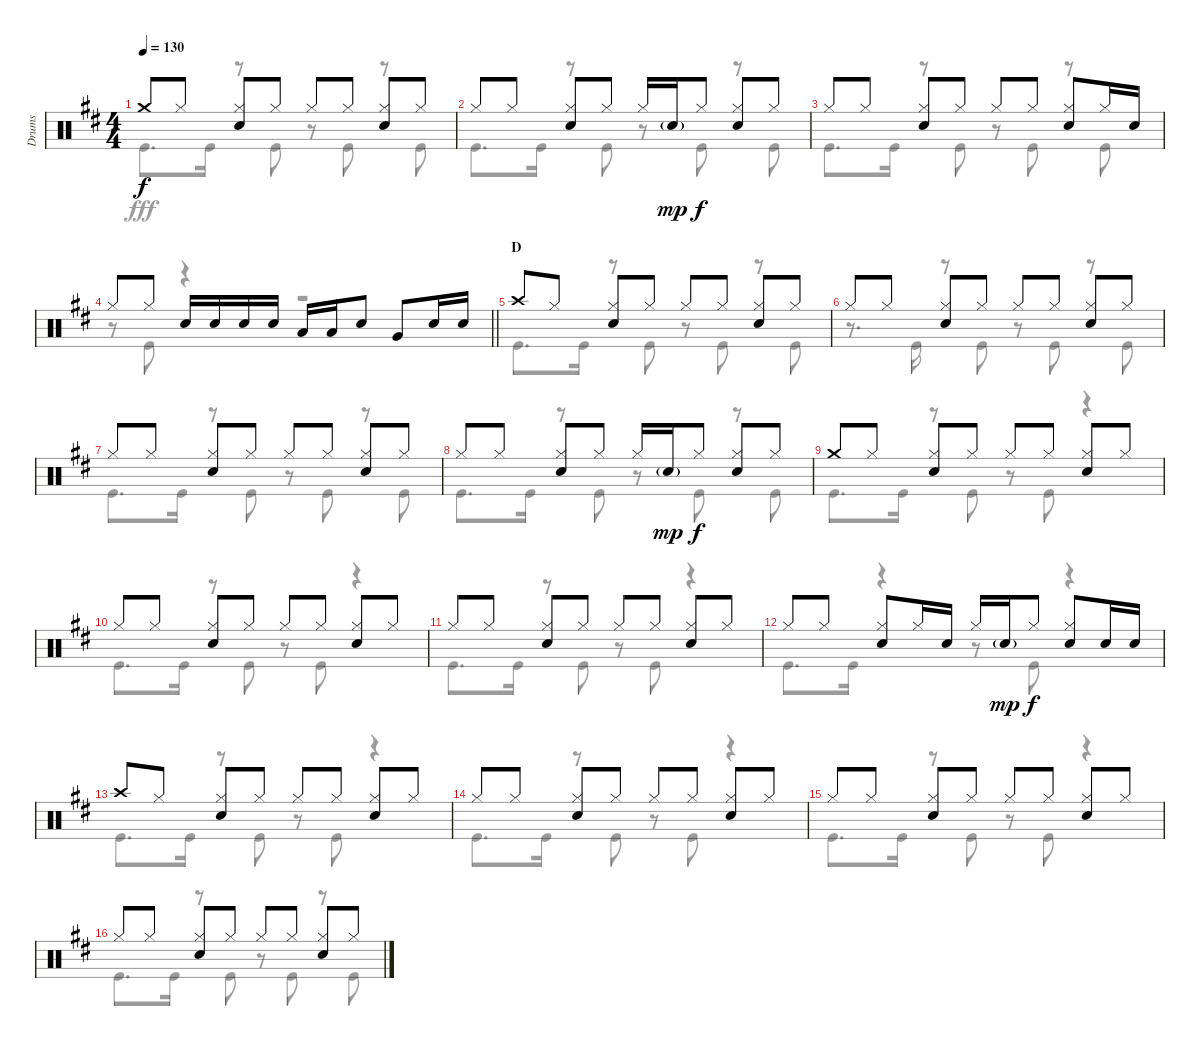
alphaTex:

\track ("Drums" "Drums") {instrument percussion}
\staff {score}
\articulation defaults
\voice
\ts (4 4)
\tempo 130
\clef neutral
\ks d "Crash medium (hit)".8{dy f} "Hi-Hat (closed)".8
("Hi-Hat (closed)" "Snare (hit) 2").8 "Hi-Hat (closed)".8 "Hi-Hat (closed)".8 "Hi-Hat (closed)".8 ("Hi-Hat (closed)" "Snare (hit) 2").8 "Hi-Hat (closed)".8 |
"Hi-Hat (closed)".8 "Hi-Hat (closed)".8 ("Hi-Hat (closed)" "Snare (hit) 2").8 "Hi-Hat (closed)".8 "Hi-Hat (closed)".16 "Snare (hit) 2"{g}.16{dy mp} "Hi-Hat (closed)".8{dy f} ("Hi-Hat (closed)" "Snare (hit) 2").8 "Hi-Hat (closed)".8 |
"Hi-Hat (closed)".8 "Hi-Hat (closed)".8 ("Hi-Hat (closed)" "Snare (hit) 2").8 "Hi-Hat (closed)".8 "Hi-Hat (closed)".8 "Hi-Hat (closed)".8 ("Hi-Hat (closed)" "Snare (hit) 2").8 "Hi-Hat (closed)".16 "Snare (hit) 2".16 |
\barLineRight lightlight "Hi-Hat (closed)".8 "Hi-Hat (closed)".8 "Snare (hit) 2".16 "Snare (hit) 2".16 "Snare (hit) 2".16 "Snare (hit) 2".16 "Low Tom (hit)".16 "Low Tom (hit)".16 "Snare (hit) 2".8 "Very Low Tom (hit)".8 "Snare (hit) 2".16 "Snare (hit) 2".16
|
\section ("" "D")
"Crash high (hit)".8 "Hi-Hat (closed)".8 ("Hi-Hat (closed)" "Snare (hit) 2").8 "Hi-Hat (closed)".8 "Hi-Hat (closed)".8 "Hi-Hat (closed)".8 ("Hi-Hat (closed)" "Snare (hit) 2").8 "Hi-Hat (closed)".8 |
"Hi-Hat (closed)".8 "Hi-Hat (closed)".8 ("Hi-Hat (closed)" "Snare (hit) 2").8 "Hi-Hat (closed)".8 "Hi-Hat (closed)".8 "Hi-Hat (closed)".8 ("Hi-Hat (closed)" "Snare (hit) 2").8 "Hi-Hat (closed)".8 |
"Hi-Hat (closed)".8 "Hi-Hat (closed)".8 ("Hi-Hat (closed)" "Snare (hit) 2").8 "Hi-Hat (closed)".8 "Hi-Hat (closed)".8 "Hi-Hat (closed)".8 ("Hi-Hat (closed)" "Snare (hit) 2").8 "Hi-Hat (closed)".8 |
"Hi-Hat (closed)".8 "Hi-Hat (closed)".8 ("Hi-Hat (closed)" "Snare (hit) 2").8 "Hi-Hat (closed)".8 "Hi-Hat (closed)".16 "Snare (hit) 2"{g}.16{dy mp} "Hi-Hat (closed)".8{dy f} ("Hi-Hat (closed)" "Snare (hit) 2").8 "Hi-Hat (closed)".8 |
"Crash medium (hit)".8 "Hi-Hat (closed)".8 ("Hi-Hat (closed)" "Snare (hit) 2").8 "Hi-Hat (closed)".8 "Hi-Hat (closed)".8 "Hi-Hat (closed)".8 ("Hi-Hat (closed)" "Snare (hit) 2").8 "Hi-Hat (closed)".8 |
"Hi-Hat (closed)".8 "Hi-Hat (closed)".8 ("Hi-Hat (closed)" "Snare (hit) 2").8 "Hi-Hat (closed)".8 "Hi-Hat (closed)".8 "Hi-Hat (closed)".8 ("Hi-Hat (closed)" "Snare (hit) 2").8 "Hi-Hat (closed)".8 |
"Hi-Hat (closed)".8 "Hi-Hat (closed)".8 ("Hi-Hat (closed)" "Snare (hit) 2").8 "Hi-Hat (closed)".8 "Hi-Hat (closed)".8 "Hi-Hat (closed)".8 ("Hi-Hat (closed)" "Snare (hit) 2").8 "Hi-Hat (closed)".8 |
"Hi-Hat (closed)".8 "Hi-Hat (closed)".8 ("Hi-Hat (closed)" "Snare (hit) 2").8 "Hi-Hat (closed)".16 "Snare (hit) 2".16 "Hi-Hat (closed)".16 "Snare (hit) 2"{g}.16{dy mp} "Hi-Hat (closed)".8{dy f} ("Hi-Hat (closed)" "Snare (hit) 2").8 "Snare (hit) 2".16 "Snare (hit) 2".16 |
"Crash high (hit)".8 "Hi-Hat (closed)".8 ("Hi-Hat (closed)" "Snare (hit) 2").8 "Hi-Hat (closed)".8 "Hi-Hat (closed)".8 "Hi-Hat (closed)".8 ("Hi-Hat (closed)" "Snare (hit) 2").8 "Hi-Hat (closed)".8 |
"Hi-Hat (closed)".8 "Hi-Hat (closed)".8 ("Hi-Hat (closed)" "Snare (hit) 2").8 "Hi-Hat (closed)".8 "Hi-Hat (closed)".8 "Hi-Hat (closed)".8 ("Hi-Hat (closed)" "Snare (hit) 2").8 "Hi-Hat (closed)".8 |
"Hi-Hat (closed)".8 "Hi-Hat (closed)".8 ("Hi-Hat (closed)" "Snare (hit) 2").8 "Hi-Hat (closed)".8 "Hi-Hat (closed)".8 "Hi-Hat (closed)".8 ("Hi-Hat (closed)" "Snare (hit) 2").8 "Hi-Hat (closed)".8 |
"Hi-Hat (closed)".8 "Hi-Hat (closed)".8 ("Hi-Hat (closed)" "Snare (hit) 2").8 "Hi-Hat (closed)".8 "Hi-Hat (closed)".8 "Hi-Hat (closed)".8 ("Hi-Hat (closed)" "Snare (hit) 2").8 "Hi-Hat (closed)".8
\voice
\clef neutral
\ottava regular
\simile none
\ks d "Kick (hit)".8{d dy fff} "Kick (hit)".16
r.8 "Kick (hit)".8 r.8 "Kick (hit)".8 r.8 "Kick (hit)".8 |
"Kick (hit)".8{d} "Kick (hit)".16 r.8 "Kick (hit)".8 r.8 "Kick (hit)".8 r.8 "Kick (hit)".8 |
"Kick (hit)".8{d} "Kick (hit)".16 r.8 "Kick (hit)".8 r.8 "Kick (hit)".8 r.8 "Kick (hit)".8 |
\barLineRight lightlight
r.8 "Kick (hit)".8 r.4 r.2 |
"Kick (hit)".8{d} "Kick (hit)".16 r.8 "Kick (hit)".8 r.8 "Kick (hit)".8 r.8 "Kick (hit)".8 |
r.8{d} "Kick (hit)".16 r.8 "Kick (hit)".8 r.8 "Kick (hit)".8 r.8 "Kick (hit)".8 |
"Kick (hit)".8{d} "Kick (hit)".16 r.8 "Kick (hit)".8 r.8 "Kick (hit)".8 r.8 "Kick (hit)".8 |
"Kick (hit)".8{d} "Kick (hit)".16 r.8 "Kick (hit)".8 r.8 "Kick (hit)".8 r.8 "Kick (hit)".8 |
"Kick (hit)".8{d} "Kick (hit)".16 r.8 "Kick (hit)".8 r.8 "Kick (hit)".8 r.4 |
"Kick (hit)".8{d} "Kick (hit)".16 r.8 "Kick (hit)".8 r.8 "Kick (hit)".8 r.4 |
"Kick (hit)".8{d} "Kick (hit)".16 r.8 "Kick (hit)".8 r.8 "Kick (hit)".8 r.4 |
"Kick (hit)".8{d} "Kick (hit)".16 r.4 r.8 "Kick (hit)".8 r.4 |
"Kick (hit)".8{d} "Kick (hit)".16 r.8 "Kick (hit)".8 r.8 "Kick (hit)".8 r.4 |
"Kick (hit)".8{d} "Kick (hit)".16 r.8 "Kick (hit)".8 r.8 "Kick (hit)".8 r.4 |
"Kick (hit)".8{d} "Kick (hit)".16 r.8 "Kick (hit)".8 r.8 "Kick (hit)".8 r.4 |
"Kick (hit)".8{d} "Kick (hit)".16 r.8 "Kick (hit)".8 r.8 "Kick (hit)".8 r.8 "Kick (hit)".8
